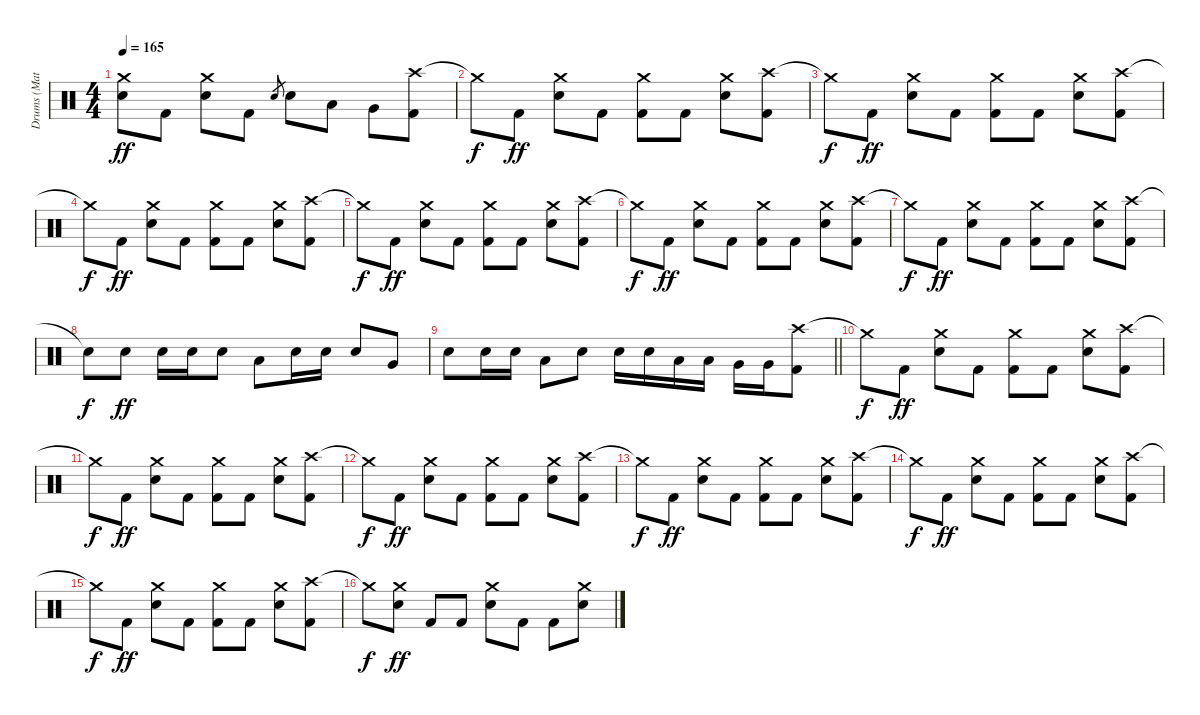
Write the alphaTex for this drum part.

\track ("Drums (Matt)" "Drums (Mat") {instrument percussion}
\staff {score}
\articulation defaults
\ts (4 4)
\tempo 165
\clef neutral
\ks c
("Crash medium (hit)" "Snare (hit) 2").8{dy ff} "Kick (hit) 2".8 ("Crash medium (hit)" "Snare (hit) 2").8 "Kick (hit) 2".8 "Snare (hit) 2".8{gr} "Snare (hit) 2".8 "Low Tom (hit)".8 "Very Low Tom (hit)".8 ("Crash high (hit)" "Kick (hit) 2").8 |
"Crash medium (hit)"{t}.8{dy f} "Kick (hit) 2".8{dy ff} ("Crash medium (hit)" "Snare (hit) 2").8 "Kick (hit) 2".8 ("Crash medium (hit)" "Kick (hit) 2").8 "Kick (hit) 2".8 ("Crash medium (hit)" "Snare (hit) 2").8 ("Crash high (hit)" "Kick (hit) 2").8 |
"Crash medium (hit)"{t}.8{dy f} "Kick (hit) 2".8{dy ff} ("Crash medium (hit)" "Snare (hit) 2").8 "Kick (hit) 2".8 ("Crash medium (hit)" "Kick (hit) 2").8 "Kick (hit) 2".8 ("Crash medium (hit)" "Snare (hit) 2").8 ("Crash high (hit)" "Kick (hit) 2").8 |
"Crash medium (hit)"{t}.8{dy f} "Kick (hit) 2".8{dy ff} ("Crash medium (hit)" "Snare (hit) 2").8 "Kick (hit) 2".8 ("Crash medium (hit)" "Kick (hit) 2").8 "Kick (hit) 2".8 ("Crash medium (hit)" "Snare (hit) 2").8 ("Crash high (hit)" "Kick (hit) 2").8 |
"Crash medium (hit)"{t}.8{dy f} "Kick (hit) 2".8{dy ff} ("Crash medium (hit)" "Snare (hit) 2").8 "Kick (hit) 2".8 ("Crash medium (hit)" "Kick (hit) 2").8 "Kick (hit) 2".8 ("Crash medium (hit)" "Snare (hit) 2").8 ("Crash high (hit)" "Kick (hit) 2").8 |
"Crash medium (hit)"{t}.8{dy f} "Kick (hit) 2".8{dy ff} ("Crash medium (hit)" "Snare (hit) 2").8 "Kick (hit) 2".8 ("Crash medium (hit)" "Kick (hit) 2").8 "Kick (hit) 2".8 ("Crash medium (hit)" "Snare (hit) 2").8 ("Crash high (hit)" "Kick (hit) 2").8 |
"Crash medium (hit)"{t}.8{dy f} "Kick (hit) 2".8{dy ff} ("Crash medium (hit)" "Snare (hit) 2").8 "Kick (hit) 2".8 ("Crash medium (hit)" "Kick (hit) 2").8 "Kick (hit) 2".8 ("Crash medium (hit)" "Snare (hit) 2").8 ("Crash high (hit)" "Kick (hit) 2").8 |
"Snare (hit)"{t}.8{dy f} "Snare (hit) 2".8{dy ff} "Snare (hit) 2".16 "Snare (hit) 2".16 "Snare (hit) 2".8 "Low Tom (hit)".8 "Snare (hit) 2".16 "Snare (hit) 2".16 "Snare (hit) 2".8 "Very Low Tom (hit)".8 |
\barLineRight lightlight "Snare (hit) 2".8 "Snare (hit) 2".16 "Snare (hit) 2".16 "Low Floor Tom (hit)".8 "Snare (hit) 2".8 "Snare (hit) 2".16 "Snare (hit) 2".16 "Low Tom (hit)".16 "Low Tom (hit)".16 "Very Low Tom (hit)".16 "Very Low Tom (hit)".16
("Crash high (hit)" "Kick (hit) 2").8 |
"Crash medium (hit)"{t}.8{dy f} "Kick (hit) 2".8{dy ff} ("Crash medium (hit)" "Snare (hit) 2").8 "Kick (hit) 2".8 ("Crash medium (hit)" "Kick (hit) 2").8 "Kick (hit) 2".8 ("Crash medium (hit)" "Snare (hit) 2").8 ("Crash high (hit)" "Kick (hit) 2").8 |
"Crash medium (hit)"{t}.8{dy f} "Kick (hit) 2".8{dy ff} ("Crash medium (hit)" "Snare (hit) 2").8 "Kick (hit) 2".8 ("Crash medium (hit)" "Kick (hit) 2").8 "Kick (hit) 2".8 ("Crash medium (hit)" "Snare (hit) 2").8 ("Crash high (hit)" "Kick (hit) 2").8 |
"Crash medium (hit)"{t}.8{dy f} "Kick (hit) 2".8{dy ff} ("Crash medium (hit)" "Snare (hit) 2").8 "Kick (hit) 2".8 ("Crash medium (hit)" "Kick (hit) 2").8 "Kick (hit) 2".8 ("Crash medium (hit)" "Snare (hit) 2").8 ("Crash high (hit)" "Kick (hit) 2").8 |
"Crash medium (hit)"{t}.8{dy f} "Kick (hit) 2".8{dy ff} ("Crash medium (hit)" "Snare (hit) 2").8 "Kick (hit) 2".8 ("Crash medium (hit)" "Kick (hit) 2").8 "Kick (hit) 2".8 ("Crash medium (hit)" "Snare (hit) 2").8 ("Crash high (hit)" "Kick (hit) 2").8 |
"Crash medium (hit)"{t}.8{dy f} "Kick (hit) 2".8{dy ff} ("Crash medium (hit)" "Snare (hit) 2").8 "Kick (hit) 2".8 ("Crash medium (hit)" "Kick (hit) 2").8 "Kick (hit) 2".8 ("Crash medium (hit)" "Snare (hit) 2").8 ("Crash high (hit)" "Kick (hit) 2").8 |
"Crash medium (hit)"{t}.8{dy f} "Kick (hit) 2".8{dy ff} ("Crash medium (hit)" "Snare (hit) 2").8 "Kick (hit) 2".8 ("Crash medium (hit)" "Kick (hit) 2").8 "Kick (hit) 2".8 ("Crash medium (hit)" "Snare (hit) 2").8 ("Crash high (hit)" "Kick (hit) 2").8 |
"Crash medium (hit)"{t}.8{dy f} ("Crash medium (hit)" "Snare (hit) 2").8{dy ff} "Kick (hit) 2".8 "Kick (hit) 2".8 ("Crash medium (hit)" "Snare (hit) 2").8 "Kick (hit) 2".8 "Kick (hit) 2".8 ("Crash medium (hit)" "Snare (hit) 2").8
